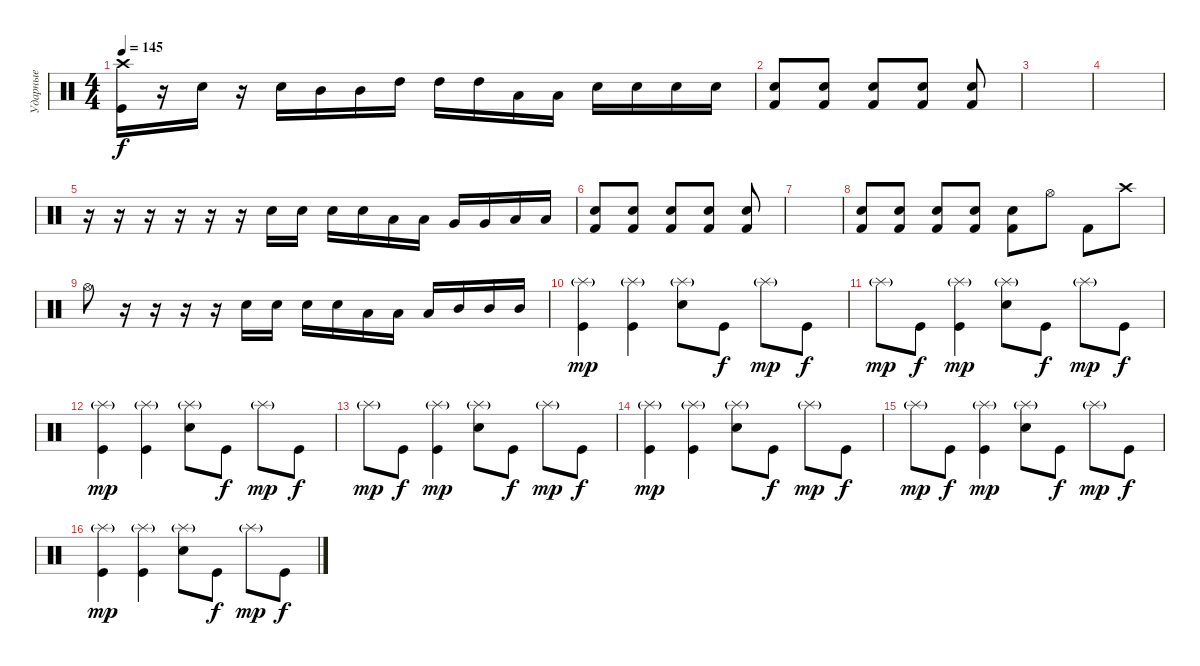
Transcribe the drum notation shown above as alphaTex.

\track ("Ударные" "Ударные") {instrument percussion}
\staff {score}
\articulation defaults
\ts (4 4)
\tempo 145
\clef neutral
\ks c
("Kick (hit)" "Crash high (hit)").16{dy f} r.16 "Electric Snare (hit)".16 r.16 "Electric Snare (hit)".16 "Mid Tom (hit)".16 "Mid Tom (hit)".16 "High Tom (hit)".16 "High Tom (hit)".16 "High Tom (hit)".16 "Low Floor Tom (hit)".16 "Low Floor Tom (hit)".16 "Electric Snare (hit)".16 "Electric Snare (hit)".16 "Electric Snare (hit)".16 "Electric Snare (hit)".16 |
("Kick (hit) 2" "Electric Snare (hit)").8 ("Kick (hit) 2" "Electric Snare (hit)").8 ("Kick (hit) 2" "Electric Snare (hit)").8 ("Kick (hit) 2" "Electric Snare (hit)").8 ("Kick (hit) 2" "Electric Snare (hit)").8 |
|
|
r.16 r.16 r.16 r.16 r.16 r.16 "Snare (hit) 2".16 "Snare (hit) 2".16 "Snare (hit) 2".16 "Snare (hit) 2".16 "Low Tom (hit)".16 "Low Tom (hit)".16 "Very Low Tom (hit)".16 "Very Low Tom (hit)".16 "Low Floor Tom (hit)".16 "Low Floor Tom (hit)".16 |
("Kick (hit) 2" "Electric Snare (hit)").8 ("Kick (hit) 2" "Electric Snare (hit)").8 ("Kick (hit) 2" "Electric Snare (hit)").8 ("Kick (hit) 2" "Electric Snare (hit)").8 ("Kick (hit) 2" "Electric Snare (hit)").8 |
|
("Kick (hit) 2" "Electric Snare (hit)").8 ("Kick (hit) 2" "Electric Snare (hit)").8 ("Kick (hit) 2" "Electric Snare (hit)").8 ("Kick (hit) 2" "Electric Snare (hit)").8 ("Kick (hit) 2" "Electric Snare (hit)").8 "Hi-Hat (open)".8 "Kick (hit) 2".8 "Crash high (hit)".8 |
"Hi-Hat (open)".8 r.16 r.16 r.16 r.16 "Electric Snare (hit)".16 "Electric Snare (hit)".16 "Electric Snare (hit)".16 "Electric Snare (hit)".16 "Low Tom (hit)".16 "Low Tom (hit)".16 "Low Tom (hit)".16 "Mid Tom (hit)".16 "Mid Tom (hit)".16 "Mid Tom (hit)".16 |
("Splash (hit)"{g} "Kick (hit)").4{dy mp} ("Splash (hit)"{g} "Kick (hit)").4 ("Splash (hit)"{g} "Snare (hit) 2").8 "Kick (hit)".8{dy f} "Splash (hit)"{g}.8{dy mp} "Kick (hit)".8{dy f} |
"Splash (hit)"{g}.8{dy mp} "Kick (hit)".8{dy f} ("Splash (hit)"{g} "Kick (hit)").4{dy mp} ("Splash (hit)"{g} "Snare (hit) 2").8 "Kick (hit)".8{dy f} "Splash (hit)"{g}.8{dy mp} "Kick (hit)".8{dy f} |
("Splash (hit)"{g} "Kick (hit)").4{dy mp} ("Splash (hit)"{g} "Kick (hit)").4 ("Splash (hit)"{g} "Snare (hit) 2").8 "Kick (hit)".8{dy f} "Splash (hit)"{g}.8{dy mp} "Kick (hit)".8{dy f} |
"Splash (hit)"{g}.8{dy mp} "Kick (hit)".8{dy f} ("Splash (hit)"{g} "Kick (hit)").4{dy mp} ("Splash (hit)"{g} "Snare (hit) 2").8 "Kick (hit)".8{dy f} "Splash (hit)"{g}.8{dy mp} "Kick (hit)".8{dy f} |
("Splash (hit)"{g} "Kick (hit)").4{dy mp} ("Splash (hit)"{g} "Kick (hit)").4 ("Splash (hit)"{g} "Snare (hit) 2").8 "Kick (hit)".8{dy f} "Splash (hit)"{g}.8{dy mp} "Kick (hit)".8{dy f} |
"Splash (hit)"{g}.8{dy mp} "Kick (hit)".8{dy f} ("Splash (hit)"{g} "Kick (hit)").4{dy mp} ("Splash (hit)"{g} "Snare (hit) 2").8 "Kick (hit)".8{dy f} "Splash (hit)"{g}.8{dy mp} "Kick (hit)".8{dy f} |
("Splash (hit)"{g} "Kick (hit)").4{dy mp} ("Splash (hit)"{g} "Kick (hit)").4 ("Splash (hit)"{g} "Snare (hit) 2").8 "Kick (hit)".8{dy f} "Splash (hit)"{g}.8{dy mp} "Kick (hit)".8{dy f}
